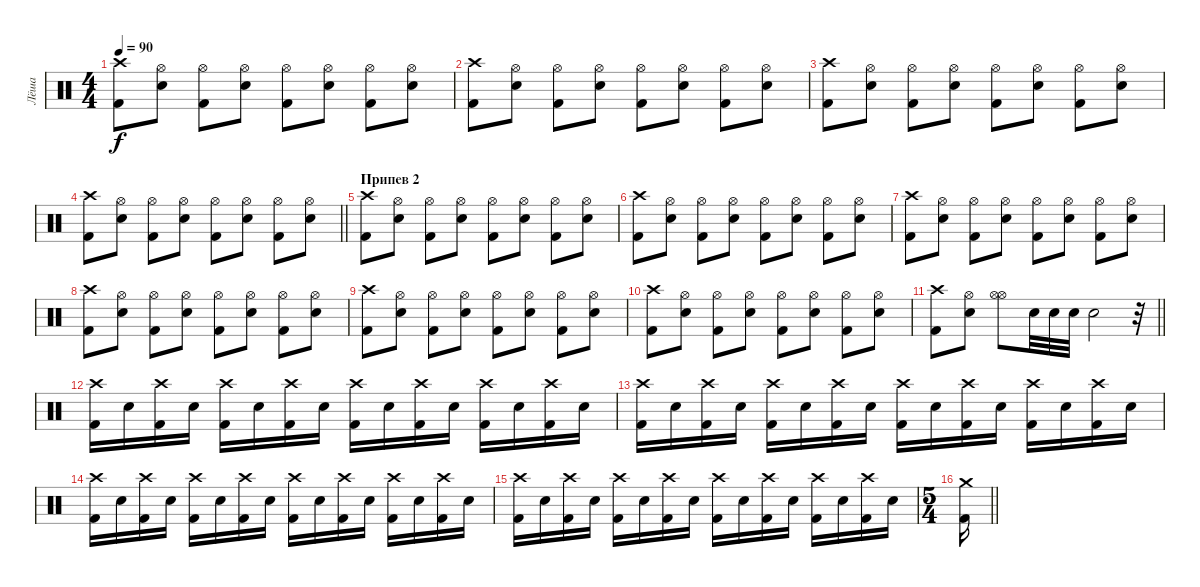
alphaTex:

\track ("Лёша" "Лёша") {instrument percussion}
\staff {score}
\articulation defaults
\ts (4 4)
\tempo 90
\clef neutral
\ks c
("Kick (hit) 2" "Crash high (hit)").8{dy f} ("Hi-Hat (open)" "Electric Snare (hit)").8 ("Hi-Hat (open)" "Kick (hit) 2").8 ("Hi-Hat (open)" "Electric Snare (hit)").8 ("Hi-Hat (open)" "Kick (hit) 2").8 ("Hi-Hat (open)" "Electric Snare (hit)").8 ("Hi-Hat (open)" "Kick (hit) 2").8 ("Hi-Hat (open)" "Electric Snare (hit)").8 |
("Kick (hit) 2" "Crash high (hit)").8 ("Hi-Hat (open)" "Electric Snare (hit)").8 ("Hi-Hat (open)" "Kick (hit) 2").8 ("Hi-Hat (open)" "Electric Snare (hit)").8 ("Hi-Hat (open)" "Kick (hit) 2").8 ("Hi-Hat (open)" "Electric Snare (hit)").8 ("Hi-Hat (open)" "Kick (hit) 2").8 ("Hi-Hat (open)" "Electric Snare (hit)").8 |
("Kick (hit) 2" "Crash high (hit)").8 ("Hi-Hat (open)" "Electric Snare (hit)").8 ("Hi-Hat (open)" "Kick (hit) 2").8 ("Hi-Hat (open)" "Electric Snare (hit)").8 ("Hi-Hat (open)" "Kick (hit) 2").8 ("Hi-Hat (open)" "Electric Snare (hit)").8 ("Hi-Hat (open)" "Kick (hit) 2").8 ("Hi-Hat (open)" "Electric Snare (hit)").8 |
\barLineRight lightlight
("Kick (hit) 2" "Crash high (hit)").8 ("Hi-Hat (open)" "Electric Snare (hit)").8 ("Hi-Hat (open)" "Kick (hit) 2").8 ("Hi-Hat (open)" "Electric Snare (hit)").8 ("Hi-Hat (open)" "Kick (hit) 2").8 ("Hi-Hat (open)" "Electric Snare (hit)").8 ("Hi-Hat (open)" "Kick (hit) 2").8 ("Hi-Hat (open)" "Electric Snare (hit)").8 |
\section ("" "Припев 2")
("Kick (hit) 2" "Crash high (hit)").8 ("Hi-Hat (open)" "Electric Snare (hit)").8 ("Hi-Hat (open)" "Kick (hit) 2").8 ("Hi-Hat (open)" "Electric Snare (hit)").8 ("Hi-Hat (open)" "Kick (hit) 2").8 ("Hi-Hat (open)" "Electric Snare (hit)").8 ("Hi-Hat (open)" "Kick (hit) 2").8 ("Hi-Hat (open)" "Electric Snare (hit)").8 |
("Kick (hit) 2" "Crash high (hit)").8 ("Hi-Hat (open)" "Electric Snare (hit)").8 ("Hi-Hat (open)" "Kick (hit) 2").8 ("Hi-Hat (open)" "Electric Snare (hit)").8 ("Hi-Hat (open)" "Kick (hit) 2").8 ("Hi-Hat (open)" "Electric Snare (hit)").8 ("Hi-Hat (open)" "Kick (hit) 2").8 ("Hi-Hat (open)" "Electric Snare (hit)").8 |
("Kick (hit) 2" "Crash high (hit)").8 ("Hi-Hat (open)" "Electric Snare (hit)").8 ("Hi-Hat (open)" "Kick (hit) 2").8 ("Hi-Hat (open)" "Electric Snare (hit)").8 ("Hi-Hat (open)" "Kick (hit) 2").8 ("Hi-Hat (open)" "Electric Snare (hit)").8 ("Hi-Hat (open)" "Kick (hit) 2").8 ("Hi-Hat (open)" "Electric Snare (hit)").8 |
("Kick (hit) 2" "Crash high (hit)").8 ("Hi-Hat (open)" "Electric Snare (hit)").8 ("Hi-Hat (open)" "Kick (hit) 2").8 ("Hi-Hat (open)" "Electric Snare (hit)").8 ("Hi-Hat (open)" "Kick (hit) 2").8 ("Hi-Hat (open)" "Electric Snare (hit)").8 ("Hi-Hat (open)" "Kick (hit) 2").8 ("Hi-Hat (open)" "Electric Snare (hit)").8 |
("Kick (hit) 2" "Crash high (hit)").8 ("Hi-Hat (open)" "Electric Snare (hit)").8 ("Hi-Hat (open)" "Kick (hit) 2").8 ("Hi-Hat (open)" "Electric Snare (hit)").8 ("Hi-Hat (open)" "Kick (hit) 2").8 ("Hi-Hat (open)" "Electric Snare (hit)").8 ("Hi-Hat (open)" "Kick (hit) 2").8 ("Hi-Hat (open)" "Electric Snare (hit)").8 |
("Kick (hit) 2" "Crash high (hit)").8 ("Hi-Hat (open)" "Electric Snare (hit)").8 ("Hi-Hat (open)" "Kick (hit) 2").8 ("Hi-Hat (open)" "Electric Snare (hit)").8 ("Hi-Hat (open)" "Kick (hit) 2").8 ("Hi-Hat (open)" "Electric Snare (hit)").8 ("Hi-Hat (open)" "Kick (hit) 2").8 ("Hi-Hat (open)" "Electric Snare (hit)").8 |
\barLineRight lightlight
("Kick (hit) 2" "Crash high (hit)").8 ("Hi-Hat (open)" "Electric Snare (hit)").8 ("Hi-Hat (open)" "Hi-Hat (open)").8 "Electric Snare (hit)".32 "Electric Snare (hit)".32 "Electric Snare (hit)".32 "Electric Snare (hit)".2 r.32 |
("Crash high (hit)" "Kick (hit) 2").16 "Electric Snare (hit)".16 ("Crash high (hit)" "Kick (hit) 2").16 "Electric Snare (hit)".16 ("Crash high (hit)" "Kick (hit) 2").16 "Electric Snare (hit)".16 ("Crash high (hit)" "Kick (hit) 2").16 "Electric Snare (hit)".16 ("Crash high (hit)" "Kick (hit) 2").16 "Electric Snare (hit)".16 ("Crash high (hit)" "Kick (hit) 2").16 "Electric Snare (hit)".16 ("Crash high (hit)" "Kick (hit) 2").16 "Electric Snare (hit)".16 ("Crash high (hit)" "Kick (hit) 2").16 "Electric Snare (hit)".16 |
("Crash high (hit)" "Kick (hit) 2").16 "Electric Snare (hit)".16 ("Crash high (hit)" "Kick (hit) 2").16 "Electric Snare (hit)".16 ("Crash high (hit)" "Kick (hit) 2").16 "Electric Snare (hit)".16 ("Crash high (hit)" "Kick (hit) 2").16 "Electric Snare (hit)".16 ("Crash high (hit)" "Kick (hit) 2").16 "Electric Snare (hit)".16 ("Crash high (hit)" "Kick (hit) 2").16 "Electric Snare (hit)".16 ("Crash high (hit)" "Kick (hit) 2").16 "Electric Snare (hit)".16 ("Crash high (hit)" "Kick (hit) 2").16 "Electric Snare (hit)".16 |
("Crash high (hit)" "Kick (hit) 2").16 "Electric Snare (hit)".16 ("Crash high (hit)" "Kick (hit) 2").16 "Electric Snare (hit)".16 ("Crash high (hit)" "Kick (hit) 2").16 "Electric Snare (hit)".16 ("Crash high (hit)" "Kick (hit) 2").16 "Electric Snare (hit)".16 ("Crash high (hit)" "Kick (hit) 2").16 "Electric Snare (hit)".16 ("Crash high (hit)" "Kick (hit) 2").16 "Electric Snare (hit)".16 ("Crash high (hit)" "Kick (hit) 2").16 "Electric Snare (hit)".16 ("Crash high (hit)" "Kick (hit) 2").16 "Electric Snare (hit)".16 |
("Crash high (hit)" "Kick (hit) 2").16 "Electric Snare (hit)".16 ("Crash high (hit)" "Kick (hit) 2").16 "Electric Snare (hit)".16 ("Crash high (hit)" "Kick (hit) 2").16 "Electric Snare (hit)".16 ("Crash high (hit)" "Kick (hit) 2").16 "Electric Snare (hit)".16 ("Crash high (hit)" "Kick (hit) 2").16 "Electric Snare (hit)".16 ("Crash high (hit)" "Kick (hit) 2").16 "Electric Snare (hit)".16 ("Crash high (hit)" "Kick (hit) 2").16 "Electric Snare (hit)".16 ("Crash high (hit)" "Kick (hit) 2").16 "Electric Snare (hit)".16 |
\ts (5 4)
\barLineRight lightlight
("Kick (hit) 2" "Crash medium (hit)").16
